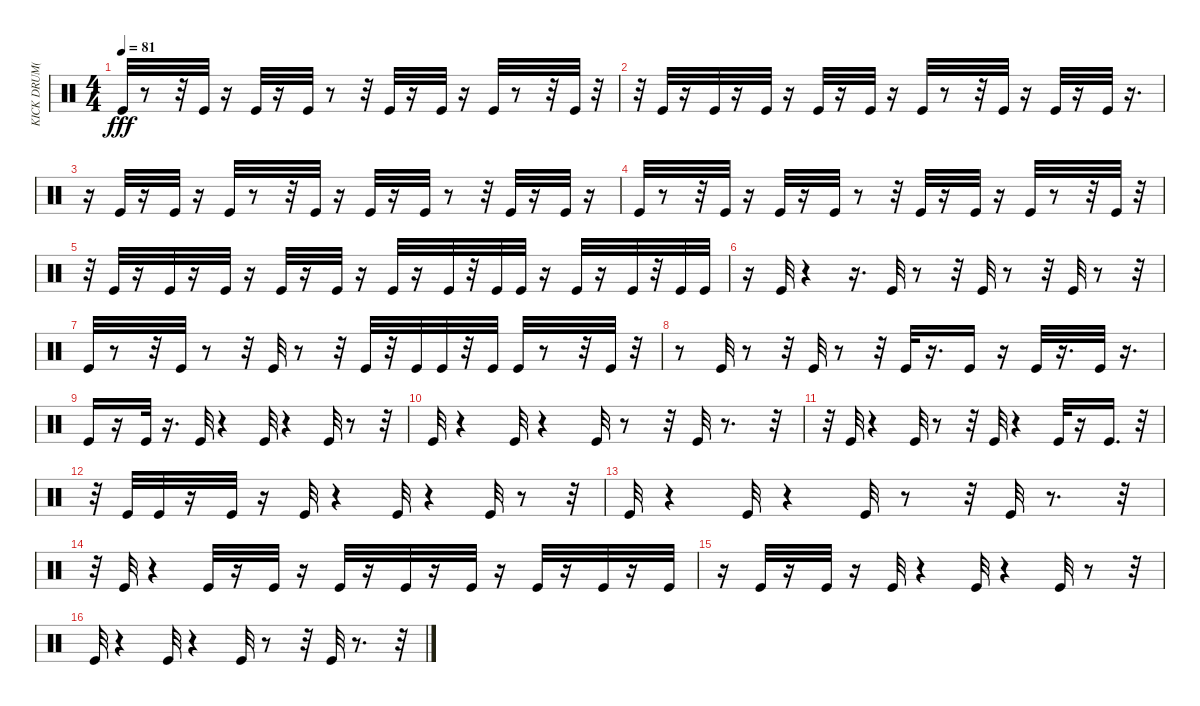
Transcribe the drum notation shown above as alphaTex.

\track ("KICK DRUM(ACOU)" "KICK DRUM(") {instrument percussion}
\staff {score}
\articulation defaults
\ts (4 4)
\tempo 81
\clef neutral
\ks c "Kick (hit)".32{dy fff}
r.8 r.32 "Kick (hit)".32 r.16 "Kick (hit)".32 r.16 "Kick (hit)".32 r.8 r.32 "Kick (hit)".32 r.16 "Kick (hit)".32 r.16 "Kick (hit)".32 r.8 r.32 "Kick (hit)".32 r.32 |
r.32 "Kick (hit)".32 r.16 "Kick (hit)".32 r.16 "Kick (hit)".32 r.16 "Kick (hit)".32 r.16 "Kick (hit)".32 r.16 "Kick (hit)".32 r.8 r.32 "Kick (hit)".32 r.16 "Kick (hit)".32 r.16 "Kick (hit)".32 r.16{d} |
r.16 "Kick (hit)".32 r.16 "Kick (hit)".32 r.16 "Kick (hit)".32 r.8 r.32 "Kick (hit)".32 r.16 "Kick (hit)".32 r.16 "Kick (hit)".32 r.8 r.32 "Kick (hit)".32 r.16 "Kick (hit)".32 r.16 |
"Kick (hit)".32 r.8 r.32 "Kick (hit)".32 r.16 "Kick (hit)".32 r.16 "Kick (hit)".32 r.8 r.32 "Kick (hit)".32 r.16 "Kick (hit)".32 r.16 "Kick (hit)".32 r.8 r.32 "Kick (hit)".32 r.32 |
r.32 "Kick (hit)".32 r.16 "Kick (hit)".32 r.16 "Kick (hit)".32 r.16 "Kick (hit)".32 r.16 "Kick (hit)".32 r.16 "Kick (hit)".32 r.16 "Kick (hit)".32 r.32 "Kick (hit)".32 "Kick (hit)".32 r.16 "Kick (hit)".32 r.16 "Kick (hit)".32 r.32 "Kick (hit)".32 "Kick (hit)".32 |
r.16 "Kick (hit)".32 r.4 r.16{d} "Kick (hit)".32 r.8 r.32 "Kick (hit)".32 r.8 r.32 "Kick (hit)".32 r.8 r.32 |
"Kick (hit)".32 r.8 r.32 "Kick (hit)".32 r.8 r.32 "Kick (hit)".32 r.8 r.32 "Kick (hit)".32 r.32 "Kick (hit)".32 "Kick (hit)".32 r.32 "Kick (hit)".32 "Kick (hit)".32 r.8 r.32 "Kick (hit)".32 r.32 |
r.8 "Kick (hit)".32 r.8 r.32 "Kick (hit)".32 r.8 r.32 "Kick (hit)".32 r.16{d} "Kick (hit)".16 r.16 "Kick (hit)".32 r.16{d} "Kick (hit)".32 r.16{d} |
"Kick (hit)".16 r.16 "Kick (hit)".32 r.16{d} "Kick (hit)".32 r.4 "Kick (hit)".32 r.4 "Kick (hit)".32 r.8 r.32 |
"Kick (hit)".32 r.4 "Kick (hit)".32 r.4 "Kick (hit)".32 r.8 r.32 "Kick (hit)".32 r.8{d} r.32 |
r.32 "Kick (hit)".32 r.4 "Kick (hit)".32 r.8 r.32 "Kick (hit)".32 r.4 "Kick (hit)".32 r.16 "Kick (hit)".16{d} r.32 |
r.32 "Kick (hit)".32 "Kick (hit)".32 r.16 "Kick (hit)".32 r.16 "Kick (hit)".32 r.4 "Kick (hit)".32 r.4 "Kick (hit)".32 r.8 r.32 |
"Kick (hit)".32 r.4 "Kick (hit)".32 r.4 "Kick (hit)".32 r.8 r.32 "Kick (hit)".32 r.8{d} r.32 |
r.32 "Kick (hit)".32 r.4 "Kick (hit)".32 r.16 "Kick (hit)".32 r.16 "Kick (hit)".32 r.16 "Kick (hit)".32 r.16 "Kick (hit)".32 r.16 "Kick (hit)".32 r.16 "Kick (hit)".32 r.16 "Kick (hit)".32 |
r.16 "Kick (hit)".32 r.16 "Kick (hit)".32 r.16 "Kick (hit)".32 r.4 "Kick (hit)".32 r.4 "Kick (hit)".32 r.8 r.32 |
"Kick (hit)".32 r.4 "Kick (hit)".32 r.4 "Kick (hit)".32 r.8 r.32 "Kick (hit)".32 r.8{d} r.32
